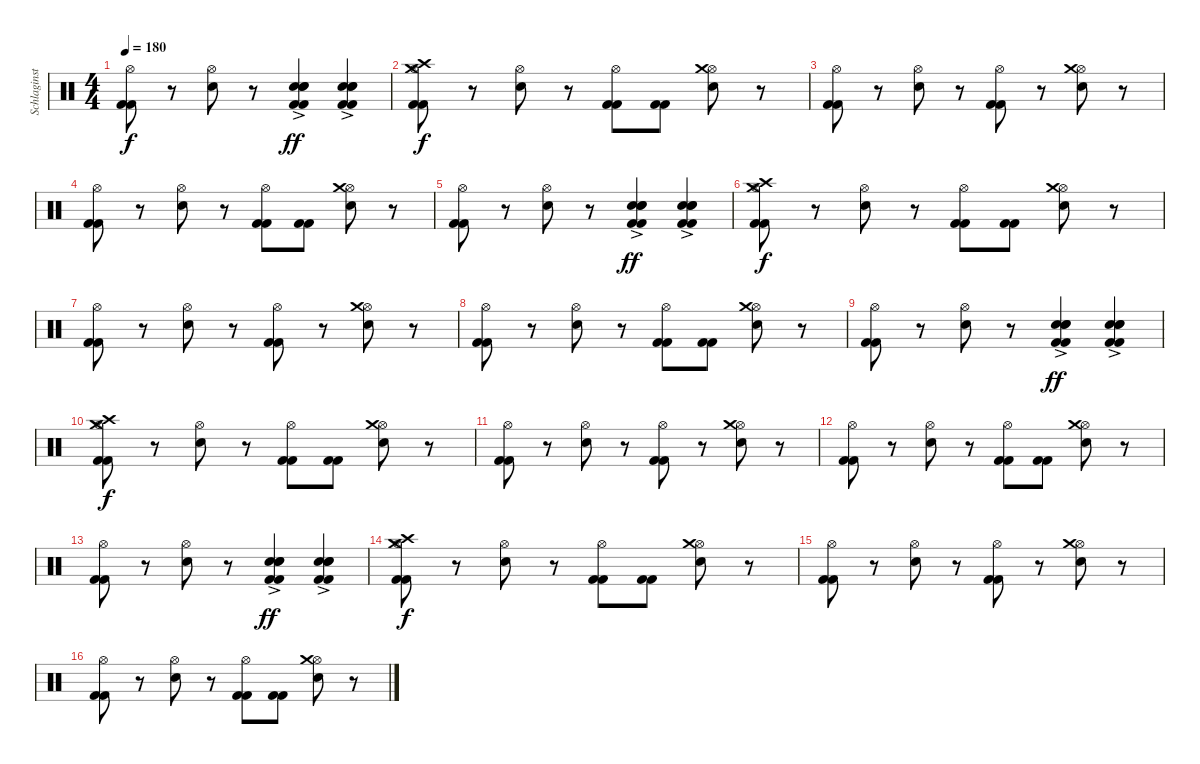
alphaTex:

\track ("Schlaginstrumente - Auswahl" "Schlaginst") {instrument percussion}
\staff {score}
\articulation defaults
\ts (4 4)
\tempo 180
\clef neutral
\ks c
("Kick (hit) 2" "Kick (hit) 2" "Hi-Hat (open)").8{dy f} r.8 ("Hi-Hat (open)" "Snare (hit) 2").8 r.8 ("Kick (hit) 2" "Kick (hit) 2" "Snare (hit) 2" "Snare (hit) 2"{ac} "Snare (hit) 2").4{dy ff} ("Kick (hit) 2" "Kick (hit) 2" "Snare (hit) 2" "Snare (hit) 2"{ac} "Snare (hit) 2").4 |
("Kick (hit) 2" "Kick (hit) 2" "Hi-Hat (open)" "Crash high (hit)" "Crash medium (hit)").8{dy f} r.8 ("Hi-Hat (open)" "Snare (hit) 2").8 r.8 ("Kick (hit) 2" "Kick (hit) 2" "Hi-Hat (open)").8 ("Kick (hit) 2" "Kick (hit) 2").8 ("Hi-Hat (open)" "Snare (hit) 2" "Crash medium (hit)").8 r.8 |
("Kick (hit) 2" "Kick (hit) 2" "Hi-Hat (open)").8 r.8 ("Hi-Hat (open)" "Snare (hit) 2").8 r.8 ("Kick (hit) 2" "Kick (hit) 2" "Hi-Hat (open)").8 r.8 ("Hi-Hat (open)" "Snare (hit) 2" "Crash medium (hit)").8 r.8 |
("Kick (hit) 2" "Kick (hit) 2" "Hi-Hat (open)").8 r.8 ("Hi-Hat (open)" "Snare (hit) 2").8 r.8 ("Kick (hit) 2" "Kick (hit) 2" "Hi-Hat (open)").8 ("Kick (hit) 2" "Kick (hit) 2").8 ("Hi-Hat (open)" "Snare (hit) 2" "Crash medium (hit)").8 r.8 |
("Kick (hit) 2" "Kick (hit) 2" "Hi-Hat (open)").8 r.8 ("Hi-Hat (open)" "Snare (hit) 2").8 r.8 ("Kick (hit) 2" "Kick (hit) 2" "Snare (hit) 2" "Snare (hit) 2"{ac} "Snare (hit) 2").4{dy ff} ("Kick (hit) 2" "Kick (hit) 2" "Snare (hit) 2" "Snare (hit) 2"{ac} "Snare (hit) 2").4 |
("Kick (hit) 2" "Kick (hit) 2" "Hi-Hat (open)" "Crash high (hit)" "Crash medium (hit)").8{dy f} r.8 ("Hi-Hat (open)" "Snare (hit) 2").8 r.8 ("Kick (hit) 2" "Kick (hit) 2" "Hi-Hat (open)").8 ("Kick (hit) 2" "Kick (hit) 2").8 ("Hi-Hat (open)" "Snare (hit) 2" "Crash medium (hit)").8 r.8 |
("Kick (hit) 2" "Kick (hit) 2" "Hi-Hat (open)").8 r.8 ("Hi-Hat (open)" "Snare (hit) 2").8 r.8 ("Kick (hit) 2" "Kick (hit) 2" "Hi-Hat (open)").8 r.8 ("Hi-Hat (open)" "Snare (hit) 2" "Crash medium (hit)").8 r.8 |
("Kick (hit) 2" "Kick (hit) 2" "Hi-Hat (open)").8 r.8 ("Hi-Hat (open)" "Snare (hit) 2").8 r.8 ("Kick (hit) 2" "Kick (hit) 2" "Hi-Hat (open)").8 ("Kick (hit) 2" "Kick (hit) 2").8 ("Hi-Hat (open)" "Snare (hit) 2" "Crash medium (hit)").8 r.8 |
("Kick (hit) 2" "Kick (hit) 2" "Hi-Hat (open)").8 r.8 ("Hi-Hat (open)" "Snare (hit) 2").8 r.8 ("Kick (hit) 2" "Kick (hit) 2" "Snare (hit) 2" "Snare (hit) 2"{ac} "Snare (hit) 2").4{dy ff} ("Kick (hit) 2" "Kick (hit) 2" "Snare (hit) 2" "Snare (hit) 2"{ac} "Snare (hit) 2").4 |
("Kick (hit) 2" "Kick (hit) 2" "Hi-Hat (open)" "Crash high (hit)" "Crash medium (hit)").8{dy f} r.8 ("Hi-Hat (open)" "Snare (hit) 2").8 r.8 ("Kick (hit) 2" "Kick (hit) 2" "Hi-Hat (open)").8 ("Kick (hit) 2" "Kick (hit) 2").8 ("Hi-Hat (open)" "Snare (hit) 2" "Crash medium (hit)").8 r.8 |
("Kick (hit) 2" "Kick (hit) 2" "Hi-Hat (open)").8 r.8 ("Hi-Hat (open)" "Snare (hit) 2").8 r.8 ("Kick (hit) 2" "Kick (hit) 2" "Hi-Hat (open)").8 r.8 ("Hi-Hat (open)" "Snare (hit) 2" "Crash medium (hit)").8 r.8 |
("Kick (hit) 2" "Kick (hit) 2" "Hi-Hat (open)").8 r.8 ("Hi-Hat (open)" "Snare (hit) 2").8 r.8 ("Kick (hit) 2" "Kick (hit) 2" "Hi-Hat (open)").8 ("Kick (hit) 2" "Kick (hit) 2").8 ("Hi-Hat (open)" "Snare (hit) 2" "Crash medium (hit)").8 r.8 |
("Kick (hit) 2" "Kick (hit) 2" "Hi-Hat (open)").8 r.8 ("Hi-Hat (open)" "Snare (hit) 2").8 r.8 ("Kick (hit) 2" "Kick (hit) 2" "Snare (hit) 2" "Snare (hit) 2"{ac} "Snare (hit) 2").4{dy ff} ("Kick (hit) 2" "Kick (hit) 2" "Snare (hit) 2" "Snare (hit) 2"{ac} "Snare (hit) 2").4 |
("Kick (hit) 2" "Kick (hit) 2" "Hi-Hat (open)" "Crash high (hit)" "Crash medium (hit)").8{dy f} r.8 ("Hi-Hat (open)" "Snare (hit) 2").8 r.8 ("Kick (hit) 2" "Kick (hit) 2" "Hi-Hat (open)").8 ("Kick (hit) 2" "Kick (hit) 2").8 ("Hi-Hat (open)" "Snare (hit) 2" "Crash medium (hit)").8 r.8 |
("Kick (hit) 2" "Kick (hit) 2" "Hi-Hat (open)").8 r.8 ("Hi-Hat (open)" "Snare (hit) 2").8 r.8 ("Kick (hit) 2" "Kick (hit) 2" "Hi-Hat (open)").8 r.8 ("Hi-Hat (open)" "Snare (hit) 2" "Crash medium (hit)").8 r.8 |
("Kick (hit) 2" "Kick (hit) 2" "Hi-Hat (open)").8 r.8 ("Hi-Hat (open)" "Snare (hit) 2").8 r.8 ("Kick (hit) 2" "Kick (hit) 2" "Hi-Hat (open)").8 ("Kick (hit) 2" "Kick (hit) 2").8 ("Hi-Hat (open)" "Snare (hit) 2" "Crash medium (hit)").8 r.8
